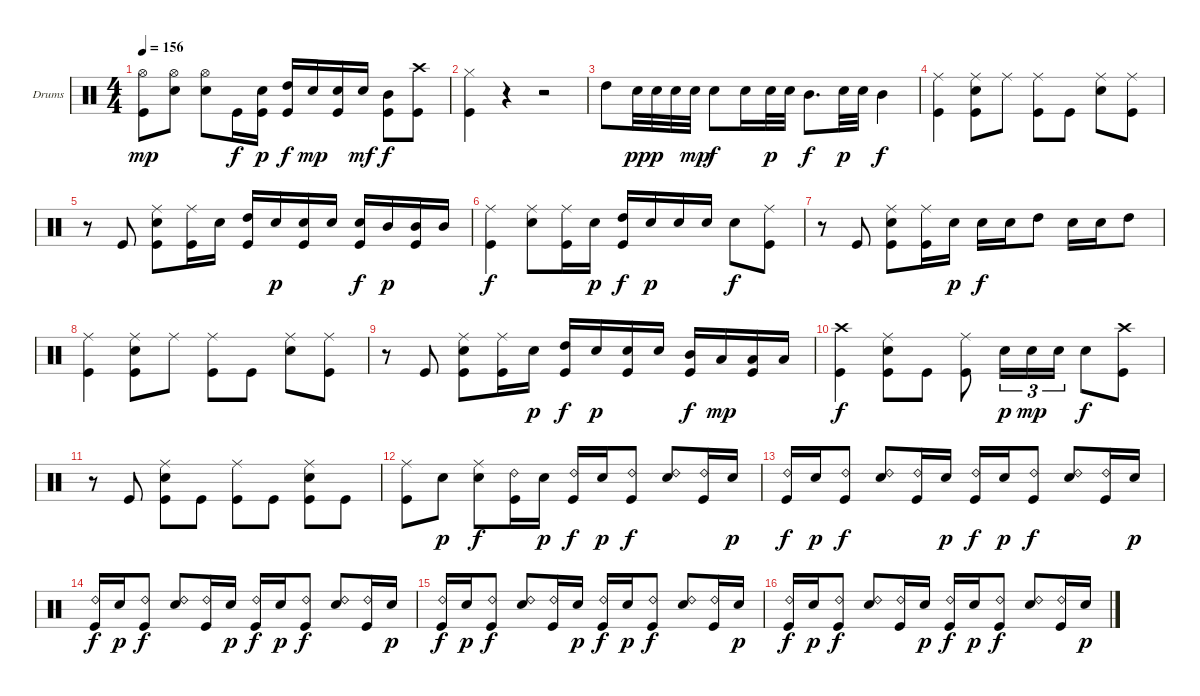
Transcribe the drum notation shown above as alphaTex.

\bracketExtendMode groupsimilarinstruments
\firstSystemTrackNameOrientation horizontal
\otherSystemsTrackNameOrientation horizontal
\track ("Drumkit" "Drums") {instrument percussion}
\staff {score}
\articulation defaults
\ts (4 4)
\tempo 156
\clef neutral
\ks c
("Hi-Hat (open)" "Kick (hit)").8{dy mp} ("Hi-Hat (open)" "Snare (hit) 2").8 ("Hi-Hat (open)" "Snare (hit) 2").8 "Kick (hit)".16{dy f} ("Snare (hit) 2" "Kick (hit)").16{dy p} ("High Tom (hit)" "Kick (hit)").16{dy f} "Snare (hit) 2".16{dy mp} ("Snare (hit) 2" "Kick (hit)").16 "Snare (hit) 2".16{dy mf} ("Mid Tom (hit)" "Kick (hit)").8{dy f} ("Crash high (hit)" "Kick (hit)").8 |
("Hi-Hat (closed)" "Kick (hit)").4 r.4 r.2 |
"High Tom (hit)".8 "Snare (hit) 2".32{dy pp} "Snare (hit) 2".32{dy p} "Snare (hit) 2".32 "Snare (hit) 2".32{dy mp} "Snare (hit) 2".8{dy f} "Snare (hit) 2".16 "Snare (hit) 2".32{dy p} "Snare (hit) 2".32 "Mid Tom (hit)".8{d dy f} "Snare (hit) 2".32{dy p} "Snare (hit) 2".32 "Mid Tom (hit)".4{dy f} |
("Ride (middle)" "Kick (hit)").4 ("Ride (middle)" "Snare (hit) 2" "Kick (hit)").8 "Ride (middle)".8 ("Ride (middle)" "Kick (hit)").8 "Kick (hit)".8 ("Ride (middle)" "Snare (hit) 2").8 ("Ride (middle)" "Kick (hit)").8 |
r.8 "Kick (hit)".8 ("Ride (middle)" "Snare (hit) 2" "Kick (hit)").8 ("Ride (middle)" "Kick (hit)").16 "Snare (hit) 2".16 ("High Tom (hit)" "Kick (hit)").16 "Snare (hit) 2".16{dy p} ("Snare (hit) 2" "Kick (hit)").16 "Snare (hit) 2".16 ("Snare (hit) 2" "Kick (hit)").16{dy f} "Mid Tom (hit)".16{dy p} ("Mid Tom (hit)" "Kick (hit)").16 "Mid Tom (hit)".16 |
("Ride (middle)" "Kick (hit)").4{dy f} ("Ride (middle)" "Snare (hit) 2").8 ("Ride (middle)" "Kick (hit)").16 "Snare (hit) 2".16{dy p} ("High Tom (hit)" "Kick (hit)").16{dy f} "Snare (hit) 2".16{dy p} "Snare (hit) 2".16 "Snare (hit) 2".16 "Snare (hit) 2".8{dy f} ("Ride (middle)" "Kick (hit)").8 |
r.8 "Kick (hit)".8 ("Ride (middle)" "Snare (hit) 2" "Kick (hit)").8 ("Ride (middle)" "Kick (hit)").16 "Snare (hit) 2".16{dy p} "Snare (hit) 2".16{dy f} "Snare (hit) 2".16 "High Tom (hit)".8 "Snare (hit) 2".16 "Snare (hit) 2".16 "High Tom (hit)".8 |
("Ride (middle)" "Kick (hit)").4 ("Ride (middle)" "Snare (hit) 2" "Kick (hit)").8 "Ride (middle)".8 ("Ride (middle)" "Kick (hit)").8 "Kick (hit)".8 ("Ride (middle)" "Snare (hit) 2").8 ("Ride (middle)" "Kick (hit)").8 |
r.8 "Kick (hit)".8 ("Ride (middle)" "Snare (hit) 2" "Kick (hit)").8 ("Ride (middle)" "Kick (hit)").16 "Snare (hit) 2".16{dy p} ("High Tom (hit)" "Kick (hit)").16{dy f} "Snare (hit) 2".16{dy p} ("Snare (hit) 2" "Kick (hit)").16 "Snare (hit) 2".16 ("Mid Tom (hit)" "Kick (hit)").16{dy f} "Low Tom (hit)".16{dy mp} ("Low Tom (hit)" "Kick (hit)").16 "Low Tom (hit)".16 |
("Crash high (hit)" "Kick (hit)").4{dy f} ("Ride (middle)" "Snare (hit) 2" "Kick (hit)").8 "Kick (hit)".8 ("Ride (middle)" "Kick (hit)").8 "Snare (hit) 2".16{tu (3 2) dy p} "Snare (hit) 2".16{tu (3 2) dy mp} "Snare (hit) 2".16{tu (3 2)} "Snare (hit) 2".8{dy f} ("Crash high (hit)" "Kick (hit)").8 |
r.8 "Kick (hit)".8 ("Ride (middle)" "Snare (hit) 2" "Kick (hit)").8 "Kick (hit)".8 ("Ride (middle)" "Kick (hit)").8 "Kick (hit)".8 ("Ride (middle)" "Snare (hit) 2" "Kick (hit)").8 "Kick (hit)".8 |
("Ride (middle)" "Kick (hit)").8 "Snare (hit) 2".8{dy p} ("Ride (middle)" "Snare (hit) 2").8{dy f} ("Ride (bell) 2" "Kick (hit)").16 "Snare (hit) 2".16{dy p} ("Ride (bell) 2" "Kick (hit)").16{dy f} "Snare (hit) 2".16{dy p} ("Ride (bell) 2" "Kick (hit)").8{dy f} ("Ride (bell) 2" "Snare (hit) 2").8 ("Ride (bell) 2" "Kick (hit)").16 "Snare (hit) 2".16{dy p} |
("Ride (bell) 2" "Kick (hit)").16{dy f} "Snare (hit) 2".16{dy p} ("Ride (bell) 2" "Kick (hit)").8{dy f} ("Ride (bell) 2" "Snare (hit) 2").8 ("Ride (bell) 2" "Kick (hit)").16 "Snare (hit) 2".16{dy p} ("Ride (bell) 2" "Kick (hit)").16{dy f} "Snare (hit) 2".16{dy p} ("Ride (bell) 2" "Kick (hit)").8{dy f} ("Ride (bell) 2" "Snare (hit) 2").8 ("Ride (bell) 2" "Kick (hit)").16 "Snare (hit) 2".16{dy p} |
("Ride (bell) 2" "Kick (hit)").16{dy f} "Snare (hit) 2".16{dy p} ("Ride (bell) 2" "Kick (hit)").8{dy f} ("Ride (bell) 2" "Snare (hit) 2").8 ("Ride (bell) 2" "Kick (hit)").16 "Snare (hit) 2".16{dy p} ("Ride (bell) 2" "Kick (hit)").16{dy f} "Snare (hit) 2".16{dy p} ("Ride (bell) 2" "Kick (hit)").8{dy f} ("Ride (bell) 2" "Snare (hit) 2").8 ("Ride (bell) 2" "Kick (hit)").16 "Snare (hit) 2".16{dy p} |
("Ride (bell) 2" "Kick (hit)").16{dy f} "Snare (hit) 2".16{dy p} ("Ride (bell) 2" "Kick (hit)").8{dy f} ("Ride (bell) 2" "Snare (hit) 2").8 ("Ride (bell) 2" "Kick (hit)").16 "Snare (hit) 2".16{dy p} ("Ride (bell) 2" "Kick (hit)").16{dy f} "Snare (hit) 2".16{dy p} ("Ride (bell) 2" "Kick (hit)").8{dy f} ("Ride (bell) 2" "Snare (hit) 2").8 ("Ride (bell) 2" "Kick (hit)").16 "Snare (hit) 2".16{dy p} |
("Ride (bell) 2" "Kick (hit)").16{dy f} "Snare (hit) 2".16{dy p} ("Ride (bell) 2" "Kick (hit)").8{dy f} ("Ride (bell) 2" "Snare (hit) 2").8 ("Ride (bell) 2" "Kick (hit)").16 "Snare (hit) 2".16{dy p} ("Ride (bell) 2" "Kick (hit)").16{dy f} "Snare (hit) 2".16{dy p} ("Ride (bell) 2" "Kick (hit)").8{dy f} ("Ride (bell) 2" "Snare (hit) 2").8 ("Ride (bell) 2" "Kick (hit)").16 "Snare (hit) 2".16{dy p}
